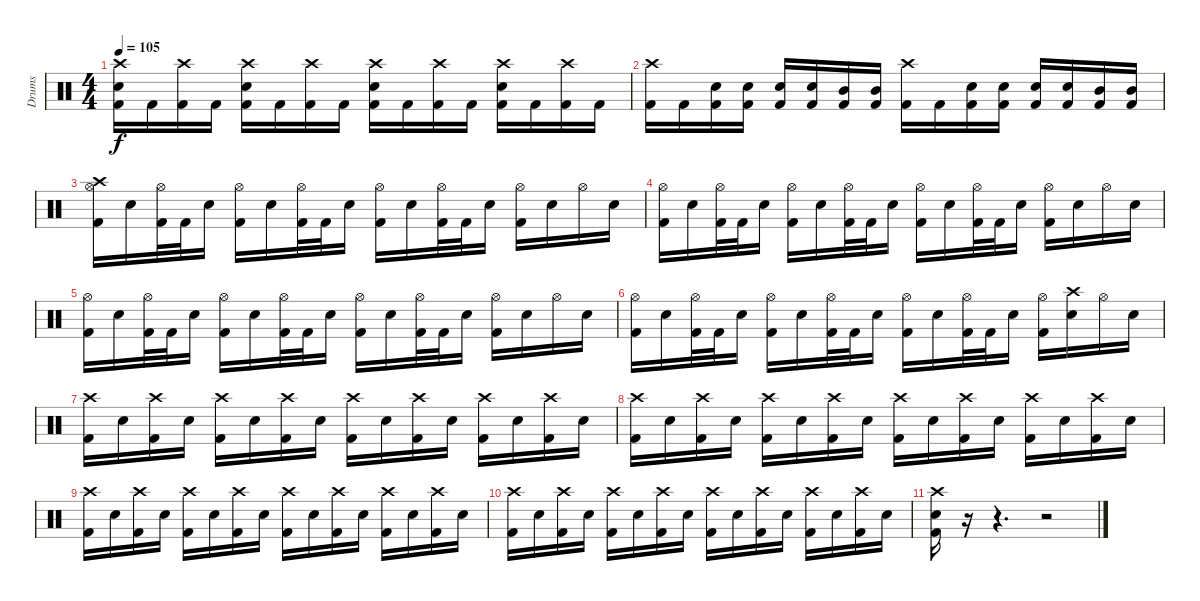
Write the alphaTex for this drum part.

\track ("Drums" "Drums") {instrument percussion}
\staff {score}
\articulation defaults
\ts (4 4)
\tempo 105
\clef neutral
\ks c
("Crash high (hit)" "Snare (hit) 2" "Kick (hit) 2").16{dy f} "Kick (hit) 2".16 ("Crash high (hit)" "Kick (hit) 2").16 "Kick (hit) 2".16 ("Crash high (hit)" "Snare (hit) 2" "Kick (hit) 2").16 "Kick (hit) 2".16 ("Crash high (hit)" "Kick (hit) 2").16 "Kick (hit) 2".16 ("Crash high (hit)" "Snare (hit) 2" "Kick (hit) 2").16 "Kick (hit) 2".16 ("Crash high (hit)" "Kick (hit) 2").16 "Kick (hit) 2".16 ("Crash high (hit)" "Snare (hit) 2" "Kick (hit) 2").16 "Kick (hit) 2".16 ("Crash high (hit)" "Kick (hit) 2").16 "Kick (hit) 2".16 |
("Crash high (hit)" "Kick (hit) 2").16 "Kick (hit) 2".16 ("Snare (hit) 2" "Kick (hit) 2").16 ("Snare (hit) 2" "Kick (hit) 2").16 ("Snare (hit) 2" "Kick (hit) 2").16 ("Snare (hit) 2" "Kick (hit) 2").16 ("Mid Tom (hit)" "Kick (hit) 2").16 ("Mid Tom (hit)" "Kick (hit) 2").16 ("Crash high (hit)" "Kick (hit) 2").16 "Kick (hit) 2".16 ("Snare (hit) 2" "Kick (hit) 2").16 ("Snare (hit) 2" "Kick (hit) 2").16 ("Snare (hit) 2" "Kick (hit) 2").16 ("Snare (hit) 2" "Kick (hit) 2").16 ("Mid Tom (hit)" "Kick (hit) 2").16 ("Mid Tom (hit)" "Kick (hit) 2").16 |
("Crash high (hit)" "Hi-Hat (open)" "Kick (hit) 2").16 "Snare (hit) 2".16 ("Hi-Hat (open)" "Kick (hit) 2").32 "Kick (hit) 2".32 "Snare (hit) 2".16 ("Hi-Hat (open)" "Kick (hit) 2").16 "Snare (hit) 2".16 ("Hi-Hat (open)" "Kick (hit) 2").32 "Kick (hit) 2".32 "Snare (hit) 2".16 ("Hi-Hat (open)" "Kick (hit) 2").16 "Snare (hit) 2".16 ("Hi-Hat (open)" "Kick (hit) 2").32 "Kick (hit) 2".32 "Snare (hit) 2".16 ("Hi-Hat (open)" "Kick (hit) 2").16 "Snare (hit) 2".16 "Hi-Hat (open)".16 "Snare (hit) 2".16 |
("Hi-Hat (open)" "Kick (hit) 2").16 "Snare (hit) 2".16 ("Hi-Hat (open)" "Kick (hit) 2").32 "Kick (hit) 2".32 "Snare (hit) 2".16 ("Hi-Hat (open)" "Kick (hit) 2").16 "Snare (hit) 2".16 ("Hi-Hat (open)" "Kick (hit) 2").32 "Kick (hit) 2".32 "Snare (hit) 2".16 ("Hi-Hat (open)" "Kick (hit) 2").16 "Snare (hit) 2".16 ("Hi-Hat (open)" "Kick (hit) 2").32 "Kick (hit) 2".32 "Snare (hit) 2".16 ("Hi-Hat (open)" "Kick (hit) 2").16 "Snare (hit) 2".16 "Hi-Hat (open)".16 "Snare (hit) 2".16 |
("Hi-Hat (open)" "Kick (hit) 2").16 "Snare (hit) 2".16 ("Hi-Hat (open)" "Kick (hit) 2").32 "Kick (hit) 2".32 "Snare (hit) 2".16 ("Hi-Hat (open)" "Kick (hit) 2").16 "Snare (hit) 2".16 ("Hi-Hat (open)" "Kick (hit) 2").32 "Kick (hit) 2".32 "Snare (hit) 2".16 ("Hi-Hat (open)" "Kick (hit) 2").16 "Snare (hit) 2".16 ("Hi-Hat (open)" "Kick (hit) 2").32 "Kick (hit) 2".32 "Snare (hit) 2".16 ("Hi-Hat (open)" "Kick (hit) 2").16 "Snare (hit) 2".16 "Hi-Hat (open)".16 "Snare (hit) 2".16 |
("Hi-Hat (open)" "Kick (hit) 2").16 "Snare (hit) 2".16 ("Hi-Hat (open)" "Kick (hit) 2").32 "Kick (hit) 2".32 "Snare (hit) 2".16 ("Hi-Hat (open)" "Kick (hit) 2").16 "Snare (hit) 2".16 ("Hi-Hat (open)" "Kick (hit) 2").32 "Kick (hit) 2".32 "Snare (hit) 2".16 ("Hi-Hat (open)" "Kick (hit) 2").16 "Snare (hit) 2".16 ("Hi-Hat (open)" "Kick (hit) 2").32 "Kick (hit) 2".32 "Snare (hit) 2".16 ("Hi-Hat (open)" "Kick (hit) 2").16 ("Crash high (hit)" "Snare (hit) 2").16 "Hi-Hat (open)".16 "Snare (hit) 2".16 |
("Crash high (hit)" "Kick (hit) 2").16 "Snare (hit) 2".16 ("Crash high (hit)" "Kick (hit) 2").16 "Snare (hit) 2".16 ("Crash high (hit)" "Kick (hit) 2").16 "Snare (hit) 2".16 ("Crash high (hit)" "Kick (hit) 2").16 "Snare (hit) 2".16 ("Crash high (hit)" "Kick (hit) 2").16 "Snare (hit) 2".16 ("Crash high (hit)" "Kick (hit) 2").16 "Snare (hit) 2".16 ("Crash high (hit)" "Kick (hit) 2").16 "Snare (hit) 2".16 ("Crash high (hit)" "Kick (hit) 2").16 "Snare (hit) 2".16 |
("Crash high (hit)" "Kick (hit) 2").16 "Snare (hit) 2".16 ("Crash high (hit)" "Kick (hit) 2").16 "Snare (hit) 2".16 ("Crash high (hit)" "Kick (hit) 2").16 "Snare (hit) 2".16 ("Crash high (hit)" "Kick (hit) 2").16 "Snare (hit) 2".16 ("Crash high (hit)" "Kick (hit) 2").16 "Snare (hit) 2".16 ("Crash high (hit)" "Kick (hit) 2").16 "Snare (hit) 2".16 ("Crash high (hit)" "Kick (hit) 2").16 "Snare (hit) 2".16 ("Crash high (hit)" "Kick (hit) 2").16 "Snare (hit) 2".16 |
("Crash high (hit)" "Kick (hit) 2").16 "Snare (hit) 2".16 ("Crash high (hit)" "Kick (hit) 2").16 "Snare (hit) 2".16 ("Crash high (hit)" "Kick (hit) 2").16 "Snare (hit) 2".16 ("Crash high (hit)" "Kick (hit) 2").16 "Snare (hit) 2".16 ("Crash high (hit)" "Kick (hit) 2").16 "Snare (hit) 2".16 ("Crash high (hit)" "Kick (hit) 2").16 "Snare (hit) 2".16 ("Crash high (hit)" "Kick (hit) 2").16 "Snare (hit) 2".16 ("Crash high (hit)" "Kick (hit) 2").16 "Snare (hit) 2".16 |
("Crash high (hit)" "Kick (hit) 2").16 "Snare (hit) 2".16 ("Crash high (hit)" "Kick (hit) 2").16 "Snare (hit) 2".16 ("Crash high (hit)" "Kick (hit) 2").16 "Snare (hit) 2".16 ("Crash high (hit)" "Kick (hit) 2").16 "Snare (hit) 2".16 ("Crash high (hit)" "Kick (hit) 2").16 "Snare (hit) 2".16 ("Crash high (hit)" "Kick (hit) 2").16 "Snare (hit) 2".16 ("Crash high (hit)" "Kick (hit) 2").16 "Snare (hit) 2".16 ("Crash high (hit)" "Kick (hit) 2").16 "Snare (hit) 2".16 |
("Crash high (hit)" "Snare (hit) 2" "Kick (hit) 2").16 r.16 r.4{d} r.2
